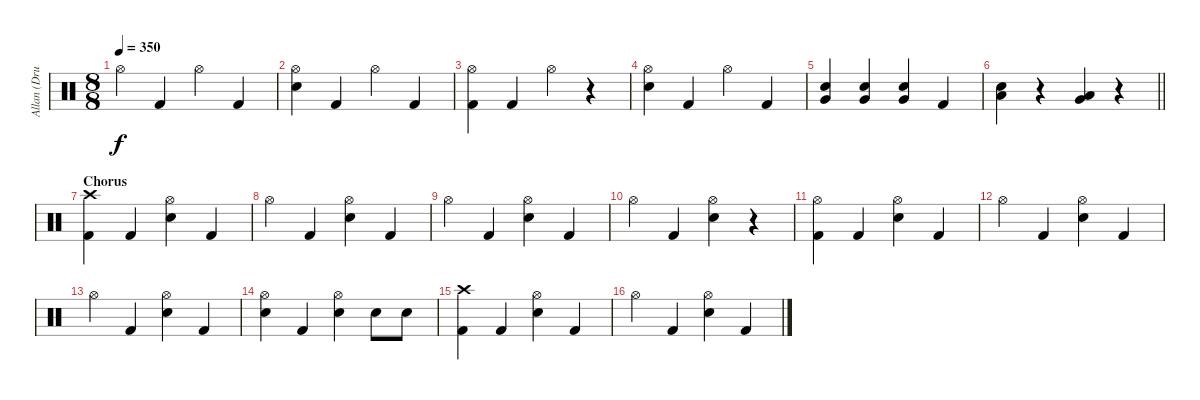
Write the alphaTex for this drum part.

\track ("Allan (Drums)" "Allan (Dru") {solo instrument percussion}
\staff {score}
\articulation defaults
\ts (8 8)
\tempo 350
\clef neutral
\ks c "Hi-Hat (open)".4{dy f} "Kick (hit) 2".4 "Hi-Hat (open)".4 "Kick (hit) 2".4
|
("Hi-Hat (open)" "Snare (hit) 2").4 "Kick (hit) 2".4 "Hi-Hat (open)".4 "Kick (hit) 2".4 |
("Hi-Hat (open)" "Kick (hit) 2").4 "Kick (hit) 2".4 "Hi-Hat (open)".4 r.4 |
("Hi-Hat (open)" "Snare (hit) 2").4 "Kick (hit) 2".4 "Hi-Hat (open)".4 "Kick (hit) 2".4 |
("Very Low Tom (hit)" "Snare (hit) 2").4 ("Very Low Tom (hit)" "Snare (hit) 2").4 ("Very Low Tom (hit)" "Snare (hit) 2").4 "Kick (hit) 2".4 |
\barLineRight lightlight
("Low Tom (hit)" "Snare (hit) 2").4 r.4 ("Very Low Tom (hit)" "Low Tom (hit)").4 r.4 |
\section ("" "Chorus")
("Crash high (hit)" "Kick (hit) 2").4 "Kick (hit) 2".4 ("Hi-Hat (open)" "Snare (hit) 2").4 "Kick (hit) 2".4 |
"Hi-Hat (open)".4 "Kick (hit) 2".4 ("Hi-Hat (open)" "Snare (hit) 2").4 "Kick (hit) 2".4 |
"Hi-Hat (open)".4 "Kick (hit) 2".4 ("Hi-Hat (open)" "Snare (hit) 2").4 "Kick (hit) 2".4 |
"Hi-Hat (open)".4 "Kick (hit) 2".4 ("Hi-Hat (open)" "Snare (hit) 2").4 r.4 |
("Hi-Hat (open)" "Kick (hit) 2").4 "Kick (hit) 2".4 ("Hi-Hat (open)" "Snare (hit) 2").4 "Kick (hit) 2".4 |
"Hi-Hat (open)".4 "Kick (hit) 2".4 ("Hi-Hat (open)" "Snare (hit) 2").4 "Kick (hit) 2".4 |
"Hi-Hat (open)".4 "Kick (hit) 2".4 ("Hi-Hat (open)" "Snare (hit) 2").4 "Kick (hit) 2".4 |
("Hi-Hat (open)" "Snare (hit) 2").4 "Kick (hit) 2".4 ("Hi-Hat (open)" "Snare (hit) 2").4 "Snare (hit) 2".8 "Snare (hit) 2".8 |
("Crash high (hit)" "Kick (hit) 2").4 "Kick (hit) 2".4 ("Hi-Hat (open)" "Snare (hit) 2").4 "Kick (hit) 2".4 |
"Hi-Hat (open)".4 "Kick (hit) 2".4 ("Hi-Hat (open)" "Snare (hit) 2").4 "Kick (hit) 2".4
